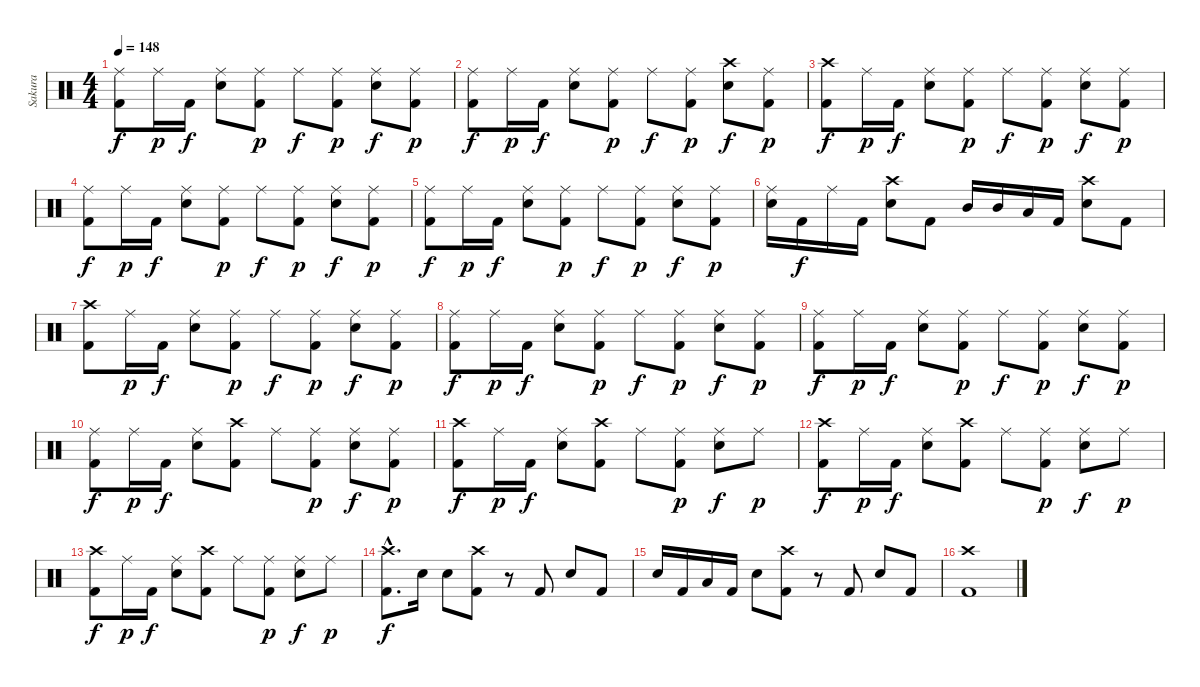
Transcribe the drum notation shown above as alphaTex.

\track ("Sakura" "Sakura") {instrument percussion}
\staff {score}
\articulation defaults
\ts (4 4)
\tempo 148
\clef neutral
\ks c
("Ride (middle)" "Kick (hit) 2").8{dy f} "Ride (middle)".16{dy p} "Kick (hit) 2".16{dy f} ("Ride (middle)" "Electric Snare (hit)").8 ("Ride (middle)" "Kick (hit) 2").8{dy p} "Ride (middle)".8{dy f} ("Ride (middle)" "Kick (hit) 2").8{dy p} ("Ride (middle)" "Electric Snare (hit)").8{dy f} ("Ride (middle)" "Kick (hit) 2").8{dy p} |
("Ride (middle)" "Kick (hit) 2").8{dy f} "Ride (middle)".16{dy p} "Kick (hit) 2".16{dy f} ("Ride (middle)" "Electric Snare (hit)").8 ("Ride (middle)" "Kick (hit) 2").8{dy p} "Ride (middle)".8{dy f} ("Ride (middle)" "Kick (hit) 2").8{dy p} ("Crash high (hit)" "Electric Snare (hit)").8{dy f} ("Ride (middle)" "Kick (hit) 2").8{dy p} |
("Crash high (hit)" "Kick (hit) 2").8{dy f} "Ride (middle)".16{dy p} "Kick (hit) 2".16{dy f} ("Ride (middle)" "Electric Snare (hit)").8 ("Ride (middle)" "Kick (hit) 2").8{dy p} "Ride (middle)".8{dy f} ("Ride (middle)" "Kick (hit) 2").8{dy p} ("Ride (middle)" "Electric Snare (hit)").8{dy f} ("Ride (middle)" "Kick (hit) 2").8{dy p} |
("Ride (middle)" "Kick (hit) 2").8{dy f} "Ride (middle)".16{dy p} "Kick (hit) 2".16{dy f} ("Ride (middle)" "Electric Snare (hit)").8 ("Ride (middle)" "Kick (hit) 2").8{dy p} "Ride (middle)".8{dy f} ("Ride (middle)" "Kick (hit) 2").8{dy p} ("Ride (middle)" "Electric Snare (hit)").8{dy f} ("Ride (middle)" "Kick (hit) 2").8{dy p} |
("Ride (middle)" "Kick (hit) 2").8{dy f} "Ride (middle)".16{dy p} "Kick (hit) 2".16{dy f} ("Ride (middle)" "Electric Snare (hit)").8 ("Ride (middle)" "Kick (hit) 2").8{dy p} "Ride (middle)".8{dy f} ("Ride (middle)" "Kick (hit) 2").8{dy p} ("Ride (middle)" "Electric Snare (hit)").8{dy f} ("Ride (middle)" "Kick (hit) 2").8{dy p} |
("Ride (middle)" "Electric Snare (hit)").16 "Kick (hit) 2".16{dy f} "Ride (middle)".16 "Kick (hit) 2".16 ("Crash high (hit)" "Electric Snare (hit)").8 "Kick (hit) 2".8 "Mid Tom (hit)".16 "Mid Tom (hit)".16 "Low Tom (hit)".16 "Kick (hit) 2".16 ("Crash high (hit)" "Electric Snare (hit)").8 "Kick (hit) 2".8 |
("Crash high (hit)" "Kick (hit) 2").8 "Ride (middle)".16{dy p} "Kick (hit) 2".16{dy f} ("Ride (middle)" "Electric Snare (hit)").8 ("Ride (middle)" "Kick (hit) 2").8{dy p} "Ride (middle)".8{dy f} ("Ride (middle)" "Kick (hit) 2").8{dy p} ("Ride (middle)" "Electric Snare (hit)").8{dy f} ("Ride (middle)" "Kick (hit) 2").8{dy p} |
("Ride (middle)" "Kick (hit) 2").8{dy f} "Ride (middle)".16{dy p} "Kick (hit) 2".16{dy f} ("Ride (middle)" "Electric Snare (hit)").8 ("Ride (middle)" "Kick (hit) 2").8{dy p} "Ride (middle)".8{dy f} ("Ride (middle)" "Kick (hit) 2").8{dy p} ("Ride (middle)" "Electric Snare (hit)").8{dy f} ("Ride (middle)" "Kick (hit) 2").8{dy p} |
("Ride (middle)" "Kick (hit) 2").8{dy f} "Ride (middle)".16{dy p} "Kick (hit) 2".16{dy f} ("Ride (middle)" "Electric Snare (hit)").8 ("Ride (middle)" "Kick (hit) 2").8{dy p} "Ride (middle)".8{dy f} ("Ride (middle)" "Kick (hit) 2").8{dy p} ("Ride (middle)" "Electric Snare (hit)").8{dy f} ("Ride (middle)" "Kick (hit) 2").8{dy p} |
("Ride (middle)" "Kick (hit) 2").8{dy f} "Ride (middle)".16{dy p} "Kick (hit) 2".16{dy f} ("Ride (middle)" "Electric Snare (hit)").8 ("Crash high (hit)" "Kick (hit) 2").8 "Ride (middle)".8 ("Ride (middle)" "Kick (hit) 2").8{dy p} ("Ride (middle)" "Electric Snare (hit)").8{dy f} ("Ride (middle)" "Kick (hit) 2").8{dy p} |
("Crash high (hit)" "Kick (hit) 2").8{dy f} "Ride (middle)".16{dy p} "Kick (hit) 2".16{dy f} ("Ride (middle)" "Electric Snare (hit)").8 ("Crash high (hit)" "Kick (hit) 2").8 "Ride (middle)".8 ("Ride (middle)" "Kick (hit) 2").8{dy p} ("Ride (middle)" "Electric Snare (hit)").8{dy f} "Ride (middle)".8{dy p} |
("Crash high (hit)" "Kick (hit) 2").8{dy f} "Ride (middle)".16{dy p} "Kick (hit) 2".16{dy f} ("Ride (middle)" "Electric Snare (hit)").8 ("Crash high (hit)" "Kick (hit) 2").8 "Ride (middle)".8 ("Ride (middle)" "Kick (hit) 2").8{dy p} ("Ride (middle)" "Electric Snare (hit)").8{dy f} "Ride (middle)".8{dy p} |
("Crash high (hit)" "Kick (hit) 2").8{dy f} "Ride (middle)".16{dy p} "Kick (hit) 2".16{dy f} ("Ride (middle)" "Electric Snare (hit)").8 ("Crash high (hit)" "Kick (hit) 2").8 "Ride (middle)".8 ("Ride (middle)" "Kick (hit) 2").8{dy p} ("Ride (middle)" "Electric Snare (hit)").8{dy f} "Ride (middle)".8{dy p} |
("Crash high (hit)"{hac} "Kick (hit) 2"{hac}).8{d dy f} "Electric Snare (hit)".16 "Electric Snare (hit)".8 ("Crash high (hit)" "Kick (hit) 2").8 r.8 "Kick (hit) 2".8 "Electric Snare (hit)".8 "Kick (hit) 2".8 |
"Electric Snare (hit)".16 "Kick (hit) 2".16 "Low Floor Tom (hit)".16 "Kick (hit) 2".16 "Electric Snare (hit)".8 ("Crash high (hit)" "Kick (hit) 2").8 r.8 "Kick (hit) 2".8 "Electric Snare (hit)".8 "Kick (hit) 2".8 |
("Crash high (hit)" "Kick (hit) 2").1
